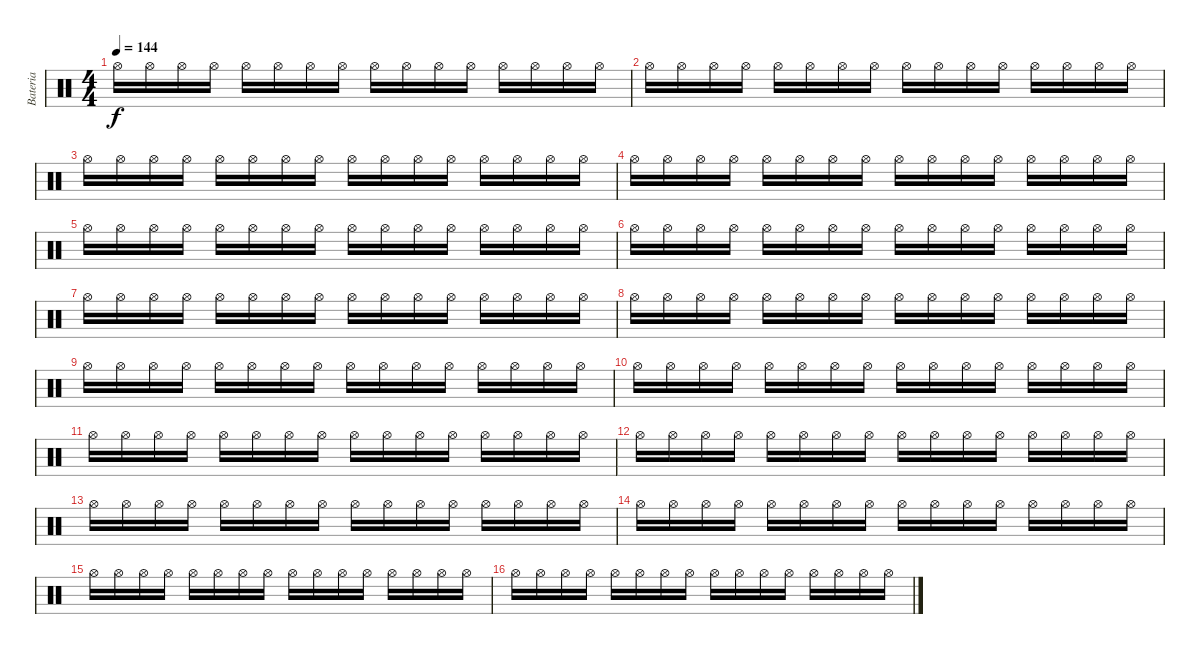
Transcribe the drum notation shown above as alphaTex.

\track ("Bateria" "Bateria") {instrument percussion}
\staff {score}
\articulation defaults
\ts (4 4)
\tempo 144
\clef neutral
\ks c "Hi-Hat (open)".16{dy f} "Hi-Hat (open)".16 "Hi-Hat (open)".16 "Hi-Hat (open)".16 "Hi-Hat (open)".16 "Hi-Hat (open)".16 "Hi-Hat (open)".16 "Hi-Hat (open)".16 "Hi-Hat (open)".16 "Hi-Hat (open)".16 "Hi-Hat (open)".16 "Hi-Hat (open)".16 "Hi-Hat (open)".16 "Hi-Hat (open)".16 "Hi-Hat (open)".16 "Hi-Hat (open)".16
|
"Hi-Hat (open)".16 "Hi-Hat (open)".16 "Hi-Hat (open)".16 "Hi-Hat (open)".16 "Hi-Hat (open)".16 "Hi-Hat (open)".16 "Hi-Hat (open)".16 "Hi-Hat (open)".16 "Hi-Hat (open)".16 "Hi-Hat (open)".16 "Hi-Hat (open)".16 "Hi-Hat (open)".16 "Hi-Hat (open)".16 "Hi-Hat (open)".16 "Hi-Hat (open)".16 "Hi-Hat (open)".16 |
"Hi-Hat (open)".16 "Hi-Hat (open)".16 "Hi-Hat (open)".16 "Hi-Hat (open)".16 "Hi-Hat (open)".16 "Hi-Hat (open)".16 "Hi-Hat (open)".16 "Hi-Hat (open)".16 "Hi-Hat (open)".16 "Hi-Hat (open)".16 "Hi-Hat (open)".16 "Hi-Hat (open)".16 "Hi-Hat (open)".16 "Hi-Hat (open)".16 "Hi-Hat (open)".16 "Hi-Hat (open)".16 |
"Hi-Hat (open)".16 "Hi-Hat (open)".16 "Hi-Hat (open)".16 "Hi-Hat (open)".16 "Hi-Hat (open)".16 "Hi-Hat (open)".16 "Hi-Hat (open)".16 "Hi-Hat (open)".16 "Hi-Hat (open)".16 "Hi-Hat (open)".16 "Hi-Hat (open)".16 "Hi-Hat (open)".16 "Hi-Hat (open)".16 "Hi-Hat (open)".16 "Hi-Hat (open)".16 "Hi-Hat (open)".16 |
"Hi-Hat (open)".16 "Hi-Hat (open)".16 "Hi-Hat (open)".16 "Hi-Hat (open)".16 "Hi-Hat (open)".16 "Hi-Hat (open)".16 "Hi-Hat (open)".16 "Hi-Hat (open)".16 "Hi-Hat (open)".16 "Hi-Hat (open)".16 "Hi-Hat (open)".16 "Hi-Hat (open)".16 "Hi-Hat (open)".16 "Hi-Hat (open)".16 "Hi-Hat (open)".16 "Hi-Hat (open)".16 |
"Hi-Hat (open)".16 "Hi-Hat (open)".16 "Hi-Hat (open)".16 "Hi-Hat (open)".16 "Hi-Hat (open)".16 "Hi-Hat (open)".16 "Hi-Hat (open)".16 "Hi-Hat (open)".16 "Hi-Hat (open)".16 "Hi-Hat (open)".16 "Hi-Hat (open)".16 "Hi-Hat (open)".16 "Hi-Hat (open)".16 "Hi-Hat (open)".16 "Hi-Hat (open)".16 "Hi-Hat (open)".16 |
"Hi-Hat (open)".16 "Hi-Hat (open)".16 "Hi-Hat (open)".16 "Hi-Hat (open)".16 "Hi-Hat (open)".16 "Hi-Hat (open)".16 "Hi-Hat (open)".16 "Hi-Hat (open)".16 "Hi-Hat (open)".16 "Hi-Hat (open)".16 "Hi-Hat (open)".16 "Hi-Hat (open)".16 "Hi-Hat (open)".16 "Hi-Hat (open)".16 "Hi-Hat (open)".16 "Hi-Hat (open)".16 |
"Hi-Hat (open)".16 "Hi-Hat (open)".16 "Hi-Hat (open)".16 "Hi-Hat (open)".16 "Hi-Hat (open)".16 "Hi-Hat (open)".16 "Hi-Hat (open)".16 "Hi-Hat (open)".16 "Hi-Hat (open)".16 "Hi-Hat (open)".16 "Hi-Hat (open)".16 "Hi-Hat (open)".16 "Hi-Hat (open)".16 "Hi-Hat (open)".16 "Hi-Hat (open)".16 "Hi-Hat (open)".16 |
"Hi-Hat (open)".16 "Hi-Hat (open)".16 "Hi-Hat (open)".16 "Hi-Hat (open)".16 "Hi-Hat (open)".16 "Hi-Hat (open)".16 "Hi-Hat (open)".16 "Hi-Hat (open)".16 "Hi-Hat (open)".16 "Hi-Hat (open)".16 "Hi-Hat (open)".16 "Hi-Hat (open)".16 "Hi-Hat (open)".16 "Hi-Hat (open)".16 "Hi-Hat (open)".16 "Hi-Hat (open)".16 |
"Hi-Hat (open)".16 "Hi-Hat (open)".16 "Hi-Hat (open)".16 "Hi-Hat (open)".16 "Hi-Hat (open)".16 "Hi-Hat (open)".16 "Hi-Hat (open)".16 "Hi-Hat (open)".16 "Hi-Hat (open)".16 "Hi-Hat (open)".16 "Hi-Hat (open)".16 "Hi-Hat (open)".16 "Hi-Hat (open)".16 "Hi-Hat (open)".16 "Hi-Hat (open)".16 "Hi-Hat (open)".16 |
"Hi-Hat (open)".16 "Hi-Hat (open)".16 "Hi-Hat (open)".16 "Hi-Hat (open)".16 "Hi-Hat (open)".16 "Hi-Hat (open)".16 "Hi-Hat (open)".16 "Hi-Hat (open)".16 "Hi-Hat (open)".16 "Hi-Hat (open)".16 "Hi-Hat (open)".16 "Hi-Hat (open)".16 "Hi-Hat (open)".16 "Hi-Hat (open)".16 "Hi-Hat (open)".16 "Hi-Hat (open)".16 |
"Hi-Hat (open)".16 "Hi-Hat (open)".16 "Hi-Hat (open)".16 "Hi-Hat (open)".16 "Hi-Hat (open)".16 "Hi-Hat (open)".16 "Hi-Hat (open)".16 "Hi-Hat (open)".16 "Hi-Hat (open)".16 "Hi-Hat (open)".16 "Hi-Hat (open)".16 "Hi-Hat (open)".16 "Hi-Hat (open)".16 "Hi-Hat (open)".16 "Hi-Hat (open)".16 "Hi-Hat (open)".16 |
"Hi-Hat (open)".16 "Hi-Hat (open)".16 "Hi-Hat (open)".16 "Hi-Hat (open)".16 "Hi-Hat (open)".16 "Hi-Hat (open)".16 "Hi-Hat (open)".16 "Hi-Hat (open)".16 "Hi-Hat (open)".16 "Hi-Hat (open)".16 "Hi-Hat (open)".16 "Hi-Hat (open)".16 "Hi-Hat (open)".16 "Hi-Hat (open)".16 "Hi-Hat (open)".16 "Hi-Hat (open)".16 |
"Hi-Hat (open)".16 "Hi-Hat (open)".16 "Hi-Hat (open)".16 "Hi-Hat (open)".16 "Hi-Hat (open)".16 "Hi-Hat (open)".16 "Hi-Hat (open)".16 "Hi-Hat (open)".16 "Hi-Hat (open)".16 "Hi-Hat (open)".16 "Hi-Hat (open)".16 "Hi-Hat (open)".16 "Hi-Hat (open)".16 "Hi-Hat (open)".16 "Hi-Hat (open)".16 "Hi-Hat (open)".16 |
"Hi-Hat (open)".16 "Hi-Hat (open)".16 "Hi-Hat (open)".16 "Hi-Hat (open)".16 "Hi-Hat (open)".16 "Hi-Hat (open)".16 "Hi-Hat (open)".16 "Hi-Hat (open)".16 "Hi-Hat (open)".16 "Hi-Hat (open)".16 "Hi-Hat (open)".16 "Hi-Hat (open)".16 "Hi-Hat (open)".16 "Hi-Hat (open)".16 "Hi-Hat (open)".16 "Hi-Hat (open)".16 |
"Hi-Hat (open)".16 "Hi-Hat (open)".16 "Hi-Hat (open)".16 "Hi-Hat (open)".16 "Hi-Hat (open)".16 "Hi-Hat (open)".16 "Hi-Hat (open)".16 "Hi-Hat (open)".16 "Hi-Hat (open)".16 "Hi-Hat (open)".16 "Hi-Hat (open)".16 "Hi-Hat (open)".16 "Hi-Hat (open)".16 "Hi-Hat (open)".16 "Hi-Hat (open)".16 "Hi-Hat (open)".16
